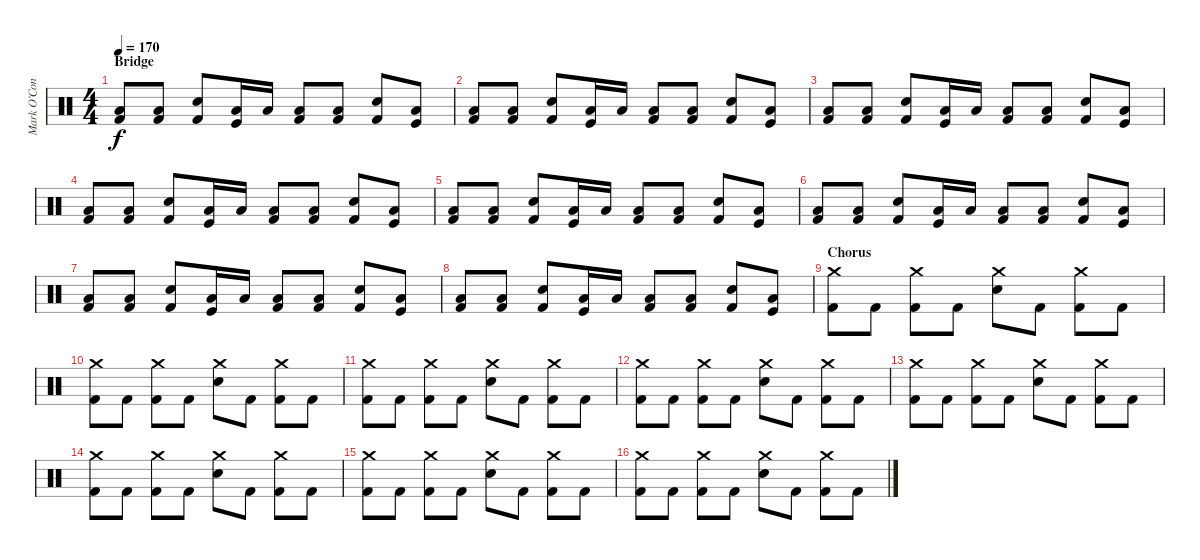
\track ("Mark O’Connell - Drums" "Mark O’Con") {instrument percussion}
\staff {score}
\articulation defaults
\ts (4 4)
\section ("" "Bridge")
\tempo 170
\clef neutral
\ks c
("Low Tom (hit)" "Kick (hit) 2").8{dy f} ("Low Tom (hit)" "Kick (hit) 2").8 ("Snare (hit) 2" "Kick (hit) 2").8 ("Low Tom (hit)" "Kick (hit)").16 "Low Tom (hit)".16 ("Low Tom (hit)" "Kick (hit) 2").8 ("Low Tom (hit)" "Kick (hit) 2").8 ("Snare (hit) 2" "Kick (hit) 2").8 ("Low Tom (hit)" "Kick (hit)").8 |
("Low Tom (hit)" "Kick (hit) 2").8 ("Low Tom (hit)" "Kick (hit) 2").8 ("Snare (hit) 2" "Kick (hit) 2").8 ("Low Tom (hit)" "Kick (hit)").16 "Low Tom (hit)".16 ("Low Tom (hit)" "Kick (hit) 2").8 ("Low Tom (hit)" "Kick (hit) 2").8 ("Snare (hit) 2" "Kick (hit) 2").8 ("Low Tom (hit)" "Kick (hit)").8 |
("Low Tom (hit)" "Kick (hit) 2").8 ("Low Tom (hit)" "Kick (hit) 2").8 ("Snare (hit) 2" "Kick (hit) 2").8 ("Low Tom (hit)" "Kick (hit)").16 "Low Tom (hit)".16 ("Low Tom (hit)" "Kick (hit) 2").8 ("Low Tom (hit)" "Kick (hit) 2").8 ("Snare (hit) 2" "Kick (hit) 2").8 ("Low Tom (hit)" "Kick (hit)").8 |
("Low Tom (hit)" "Kick (hit) 2").8 ("Low Tom (hit)" "Kick (hit) 2").8 ("Snare (hit) 2" "Kick (hit) 2").8 ("Low Tom (hit)" "Kick (hit)").16 "Low Tom (hit)".16 ("Low Tom (hit)" "Kick (hit) 2").8 ("Low Tom (hit)" "Kick (hit) 2").8 ("Snare (hit) 2" "Kick (hit) 2").8 ("Low Tom (hit)" "Kick (hit)").8 |
("Low Tom (hit)" "Kick (hit) 2").8 ("Low Tom (hit)" "Kick (hit) 2").8 ("Snare (hit) 2" "Kick (hit) 2").8 ("Low Tom (hit)" "Kick (hit)").16 "Low Tom (hit)".16 ("Low Tom (hit)" "Kick (hit) 2").8 ("Low Tom (hit)" "Kick (hit) 2").8 ("Snare (hit) 2" "Kick (hit) 2").8 ("Low Tom (hit)" "Kick (hit)").8 |
("Low Tom (hit)" "Kick (hit) 2").8 ("Low Tom (hit)" "Kick (hit) 2").8 ("Snare (hit) 2" "Kick (hit) 2").8 ("Low Tom (hit)" "Kick (hit)").16 "Low Tom (hit)".16 ("Low Tom (hit)" "Kick (hit) 2").8 ("Low Tom (hit)" "Kick (hit) 2").8 ("Snare (hit) 2" "Kick (hit) 2").8 ("Low Tom (hit)" "Kick (hit)").8 |
("Low Tom (hit)" "Kick (hit) 2").8 ("Low Tom (hit)" "Kick (hit) 2").8 ("Snare (hit) 2" "Kick (hit) 2").8 ("Low Tom (hit)" "Kick (hit)").16 "Low Tom (hit)".16 ("Low Tom (hit)" "Kick (hit) 2").8 ("Low Tom (hit)" "Kick (hit) 2").8 ("Snare (hit) 2" "Kick (hit) 2").8 ("Low Tom (hit)" "Kick (hit)").8 |
("Low Tom (hit)" "Kick (hit) 2").8 ("Low Tom (hit)" "Kick (hit) 2").8 ("Snare (hit) 2" "Kick (hit) 2").8 ("Low Tom (hit)" "Kick (hit)").16 "Low Tom (hit)".16 ("Low Tom (hit)" "Kick (hit) 2").8 ("Low Tom (hit)" "Kick (hit) 2").8 ("Snare (hit) 2" "Kick (hit) 2").8 ("Low Tom (hit)" "Kick (hit)").8 |
\section ("" "Chorus")
("Crash medium (hit)" "Kick (hit) 2").8 "Kick (hit) 2".8 ("Crash medium (hit)" "Kick (hit) 2").8 "Kick (hit) 2".8 ("Crash medium (hit)" "Snare (hit) 2").8 "Kick (hit) 2".8 ("Crash medium (hit)" "Kick (hit) 2").8 "Kick (hit) 2".8 |
("Crash medium (hit)" "Kick (hit) 2").8 "Kick (hit) 2".8 ("Crash medium (hit)" "Kick (hit) 2").8 "Kick (hit) 2".8 ("Crash medium (hit)" "Snare (hit) 2").8 "Kick (hit) 2".8 ("Crash medium (hit)" "Kick (hit) 2").8 "Kick (hit) 2".8 |
("Crash medium (hit)" "Kick (hit) 2").8 "Kick (hit) 2".8 ("Crash medium (hit)" "Kick (hit) 2").8 "Kick (hit) 2".8 ("Crash medium (hit)" "Snare (hit) 2").8 "Kick (hit) 2".8 ("Crash medium (hit)" "Kick (hit) 2").8 "Kick (hit) 2".8 |
("Crash medium (hit)" "Kick (hit) 2").8 "Kick (hit) 2".8 ("Crash medium (hit)" "Kick (hit) 2").8 "Kick (hit) 2".8 ("Crash medium (hit)" "Snare (hit) 2").8 "Kick (hit) 2".8 ("Crash medium (hit)" "Kick (hit) 2").8 "Kick (hit) 2".8 |
("Crash medium (hit)" "Kick (hit) 2").8 "Kick (hit) 2".8 ("Crash medium (hit)" "Kick (hit) 2").8 "Kick (hit) 2".8 ("Crash medium (hit)" "Snare (hit) 2").8 "Kick (hit) 2".8 ("Crash medium (hit)" "Kick (hit) 2").8 "Kick (hit) 2".8 |
("Crash medium (hit)" "Kick (hit) 2").8 "Kick (hit) 2".8 ("Crash medium (hit)" "Kick (hit) 2").8 "Kick (hit) 2".8 ("Crash medium (hit)" "Snare (hit) 2").8 "Kick (hit) 2".8 ("Crash medium (hit)" "Kick (hit) 2").8 "Kick (hit) 2".8 |
("Crash medium (hit)" "Kick (hit) 2").8 "Kick (hit) 2".8 ("Crash medium (hit)" "Kick (hit) 2").8 "Kick (hit) 2".8 ("Crash medium (hit)" "Snare (hit) 2").8 "Kick (hit) 2".8 ("Crash medium (hit)" "Kick (hit) 2").8 "Kick (hit) 2".8 |
("Crash medium (hit)" "Kick (hit) 2").8 "Kick (hit) 2".8 ("Crash medium (hit)" "Kick (hit) 2").8 "Kick (hit) 2".8 ("Crash medium (hit)" "Snare (hit) 2").8 "Kick (hit) 2".8 ("Crash medium (hit)" "Kick (hit) 2").8 "Kick (hit) 2".8
